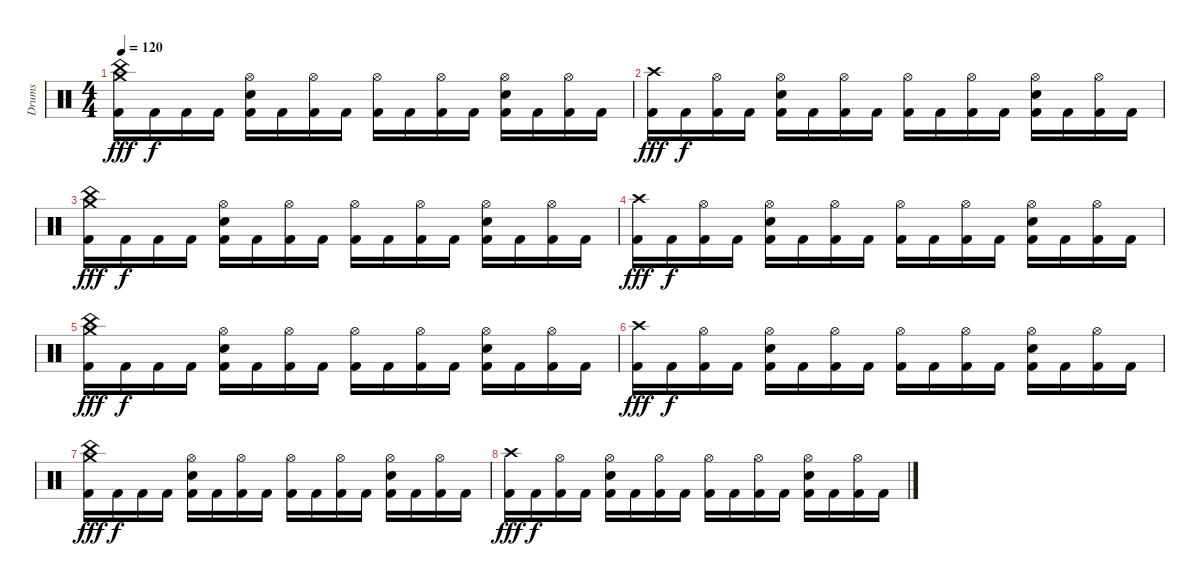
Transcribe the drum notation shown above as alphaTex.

\track ("Drums" "Drums") {instrument percussion}
\staff {score}
\articulation defaults
\ts (4 4)
\tempo 120
\clef neutral
\ks c
("Crash medium (hit)" "China (hit)" "Kick (hit) 2").16{dy fff volume 11} "Kick (hit) 2".16{dy f} "Kick (hit) 2".16 "Kick (hit) 2".16 ("Hi-Hat (open)" "Electric Snare (hit)" "Kick (hit) 2").16 "Kick (hit) 2".16 ("Hi-Hat (open)" "Kick (hit) 2").16 "Kick (hit) 2".16 ("Hi-Hat (open)" "Kick (hit) 2").16 "Kick (hit) 2".16 ("Hi-Hat (open)" "Kick (hit) 2").16 "Kick (hit) 2".16 ("Hi-Hat (open)" "Electric Snare (hit)" "Kick (hit) 2").16 "Kick (hit) 2".16 ("Hi-Hat (open)" "Kick (hit) 2").16 "Kick (hit) 2".16 |
("Crash high (hit)" "Kick (hit) 2").16{dy fff} "Kick (hit) 2".16{dy f} ("Hi-Hat (open)" "Kick (hit) 2").16 "Kick (hit) 2".16 ("Hi-Hat (open)" "Electric Snare (hit)" "Kick (hit) 2").16 "Kick (hit) 2".16 ("Hi-Hat (open)" "Kick (hit) 2").16 "Kick (hit) 2".16 ("Hi-Hat (open)" "Kick (hit) 2").16 "Kick (hit) 2".16 ("Hi-Hat (open)" "Kick (hit) 2").16 "Kick (hit) 2".16 ("Hi-Hat (open)" "Electric Snare (hit)" "Kick (hit) 2").16 "Kick (hit) 2".16 ("Hi-Hat (open)" "Kick (hit) 2").16 "Kick (hit) 2".16 |
("Crash medium (hit)" "China (hit)" "Kick (hit) 2").16{dy fff volume 9} "Kick (hit) 2".16{dy f} "Kick (hit) 2".16 "Kick (hit) 2".16 ("Hi-Hat (open)" "Electric Snare (hit)" "Kick (hit) 2").16 "Kick (hit) 2".16 ("Hi-Hat (open)" "Kick (hit) 2").16 "Kick (hit) 2".16 ("Hi-Hat (open)" "Kick (hit) 2").16 "Kick (hit) 2".16 ("Hi-Hat (open)" "Kick (hit) 2").16 "Kick (hit) 2".16 ("Hi-Hat (open)" "Electric Snare (hit)" "Kick (hit) 2").16 "Kick (hit) 2".16 ("Hi-Hat (open)" "Kick (hit) 2").16 "Kick (hit) 2".16 |
("Crash high (hit)" "Kick (hit) 2").16{dy fff} "Kick (hit) 2".16{dy f} ("Hi-Hat (open)" "Kick (hit) 2").16 "Kick (hit) 2".16 ("Hi-Hat (open)" "Electric Snare (hit)" "Kick (hit) 2").16 "Kick (hit) 2".16 ("Hi-Hat (open)" "Kick (hit) 2").16 "Kick (hit) 2".16 ("Hi-Hat (open)" "Kick (hit) 2").16 "Kick (hit) 2".16 ("Hi-Hat (open)" "Kick (hit) 2").16 "Kick (hit) 2".16 ("Hi-Hat (open)" "Electric Snare (hit)" "Kick (hit) 2").16 "Kick (hit) 2".16 ("Hi-Hat (open)" "Kick (hit) 2").16 "Kick (hit) 2".16 |
("Crash medium (hit)" "China (hit)" "Kick (hit) 2").16{dy fff volume 6} "Kick (hit) 2".16{dy f} "Kick (hit) 2".16 "Kick (hit) 2".16 ("Hi-Hat (open)" "Electric Snare (hit)" "Kick (hit) 2").16 "Kick (hit) 2".16 ("Hi-Hat (open)" "Kick (hit) 2").16 "Kick (hit) 2".16 ("Hi-Hat (open)" "Kick (hit) 2").16 "Kick (hit) 2".16 ("Hi-Hat (open)" "Kick (hit) 2").16 "Kick (hit) 2".16 ("Hi-Hat (open)" "Electric Snare (hit)" "Kick (hit) 2").16 "Kick (hit) 2".16 ("Hi-Hat (open)" "Kick (hit) 2").16 "Kick (hit) 2".16 |
("Crash high (hit)" "Kick (hit) 2").16{dy fff} "Kick (hit) 2".16{dy f} ("Hi-Hat (open)" "Kick (hit) 2").16 "Kick (hit) 2".16 ("Hi-Hat (open)" "Electric Snare (hit)" "Kick (hit) 2").16 "Kick (hit) 2".16 ("Hi-Hat (open)" "Kick (hit) 2").16 "Kick (hit) 2".16 ("Hi-Hat (open)" "Kick (hit) 2").16 "Kick (hit) 2".16 ("Hi-Hat (open)" "Kick (hit) 2").16 "Kick (hit) 2".16 ("Hi-Hat (open)" "Electric Snare (hit)" "Kick (hit) 2").16 "Kick (hit) 2".16 ("Hi-Hat (open)" "Kick (hit) 2").16 "Kick (hit) 2".16 |
("Crash medium (hit)" "China (hit)" "Kick (hit) 2").16{dy fff volume 0} "Kick (hit) 2".16{dy f} "Kick (hit) 2".16 "Kick (hit) 2".16 ("Hi-Hat (open)" "Electric Snare (hit)" "Kick (hit) 2").16 "Kick (hit) 2".16 ("Hi-Hat (open)" "Kick (hit) 2").16 "Kick (hit) 2".16 ("Hi-Hat (open)" "Kick (hit) 2").16 "Kick (hit) 2".16 ("Hi-Hat (open)" "Kick (hit) 2").16 "Kick (hit) 2".16 ("Hi-Hat (open)" "Electric Snare (hit)" "Kick (hit) 2").16 "Kick (hit) 2".16 ("Hi-Hat (open)" "Kick (hit) 2").16 "Kick (hit) 2".16 |
("Crash high (hit)" "Kick (hit) 2").16{dy fff} "Kick (hit) 2".16{dy f} ("Hi-Hat (open)" "Kick (hit) 2").16 "Kick (hit) 2".16 ("Hi-Hat (open)" "Electric Snare (hit)" "Kick (hit) 2").16 "Kick (hit) 2".16 ("Hi-Hat (open)" "Kick (hit) 2").16 "Kick (hit) 2".16 ("Hi-Hat (open)" "Kick (hit) 2").16 "Kick (hit) 2".16 ("Hi-Hat (open)" "Kick (hit) 2").16 "Kick (hit) 2".16 ("Hi-Hat (open)" "Electric Snare (hit)" "Kick (hit) 2").16 "Kick (hit) 2".16 ("Hi-Hat (open)" "Kick (hit) 2").16 "Kick (hit) 2".16
